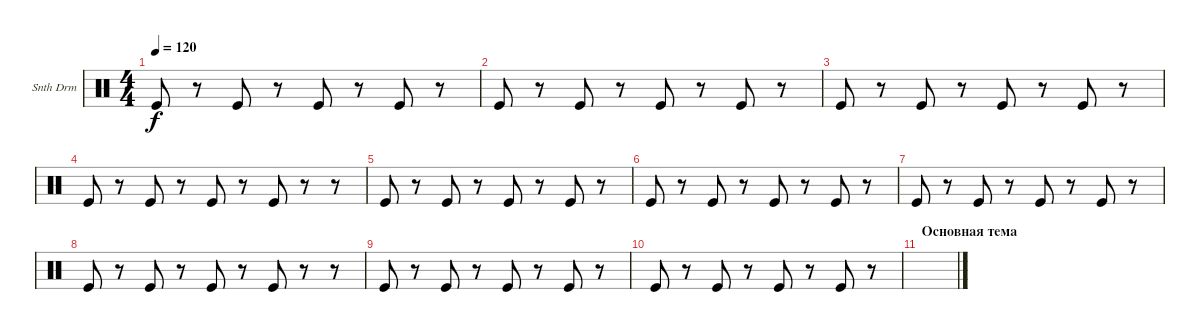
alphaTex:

\defaultSystemsLayout 4
\bracketExtendMode groupsimilarinstruments
\firstSystemTrackNameOrientation horizontal
\otherSystemsTrackNameOrientation horizontal
\track ("Synth Drum" "Snth Drm") {instrument percussion}
\staff {score}
\articulation defaults
\ts (4 4)
\tempo 120
\clef neutral
\ks c "Kick (hit)".8{dy f}
r.8 "Kick (hit)".8 r.8 "Kick (hit)".8 r.8 "Kick (hit)".8 r.8 |
"Kick (hit)".8 r.8 "Kick (hit)".8 r.8 "Kick (hit)".8 r.8 "Kick (hit)".8 r.8 |
"Kick (hit)".8 r.8 "Kick (hit)".8 r.8 "Kick (hit)".8 r.8 "Kick (hit)".8 r.8 |
"Kick (hit)".8 r.8 "Kick (hit)".8 r.8 "Kick (hit)".8 r.8 "Kick (hit)".8 r.8 r.8 |
"Kick (hit)".8 r.8 "Kick (hit)".8 r.8 "Kick (hit)".8 r.8 "Kick (hit)".8 r.8 |
"Kick (hit)".8 r.8 "Kick (hit)".8 r.8 "Kick (hit)".8 r.8 "Kick (hit)".8 r.8 |
"Kick (hit)".8 r.8 "Kick (hit)".8 r.8 "Kick (hit)".8 r.8 "Kick (hit)".8 r.8 |
"Kick (hit)".8 r.8 "Kick (hit)".8 r.8 "Kick (hit)".8 r.8 "Kick (hit)".8 r.8 r.8 |
"Kick (hit)".8 r.8 "Kick (hit)".8 r.8 "Kick (hit)".8 r.8 "Kick (hit)".8 r.8 |
"Kick (hit)".8 r.8 "Kick (hit)".8 r.8 "Kick (hit)".8 r.8 "Kick (hit)".8 r.8 |
\section ("" "Основная тема")
